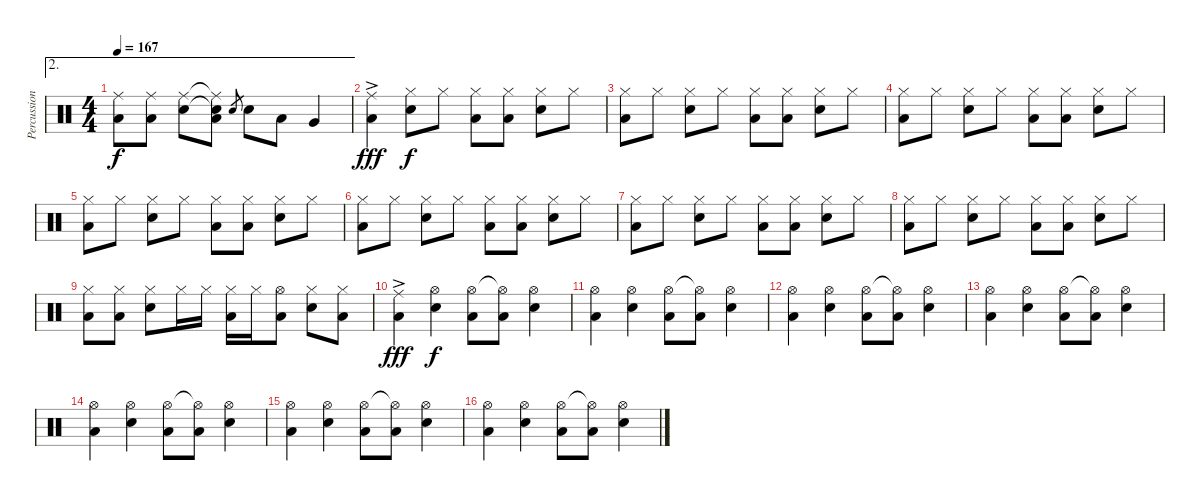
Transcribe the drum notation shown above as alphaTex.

\track ("Percussion" "Percussion") {instrument percussion}
\staff {score}
\articulation defaults
\ae 2
\ts (4 4)
\tempo 167
\clef neutral
\ks c
("Ride (middle)" "Low Floor Tom (hit)").8{dy f} ("Ride (middle)" "Low Floor Tom (hit)").8 ("Ride (middle)" "Snare (hit) 2").8 ("Ride (middle)"{t} "Snare (hit) 2"{t} "Low Floor Tom (hit)").8 "Snare (hit) 2".8{gr} "Snare (hit) 2".8 "Low Tom (hit)".8 "Very Low Tom (hit)".4 |
("Ride (middle)"{ac} "Low Floor Tom (hit)").4{dy fff} ("Hi-Hat (closed)" "Snare (hit) 2").8{dy f} "Hi-Hat (closed)".8 ("Hi-Hat (closed)" "Low Floor Tom (hit)").8 ("Hi-Hat (closed)" "Low Floor Tom (hit)").8 ("Hi-Hat (closed)" "Snare (hit) 2").8 "Hi-Hat (closed)".8 |
("Hi-Hat (closed)" "Low Floor Tom (hit)").8 "Hi-Hat (closed)".8 ("Hi-Hat (closed)" "Snare (hit) 2").8 "Hi-Hat (closed)".8 ("Hi-Hat (closed)" "Low Floor Tom (hit)").8 ("Hi-Hat (closed)" "Low Floor Tom (hit)").8 ("Hi-Hat (closed)" "Snare (hit) 2").8 "Hi-Hat (closed)".8 |
("Hi-Hat (closed)" "Low Floor Tom (hit)").8 "Hi-Hat (closed)".8 ("Hi-Hat (closed)" "Snare (hit) 2").8 "Hi-Hat (closed)".8 ("Hi-Hat (closed)" "Low Floor Tom (hit)").8 ("Hi-Hat (closed)" "Low Floor Tom (hit)").8 ("Hi-Hat (closed)" "Snare (hit) 2").8 "Hi-Hat (closed)".8 |
("Hi-Hat (closed)" "Low Floor Tom (hit)").8 "Hi-Hat (closed)".8 ("Hi-Hat (closed)" "Snare (hit) 2").8 "Hi-Hat (closed)".8 ("Hi-Hat (closed)" "Low Floor Tom (hit)").8 ("Hi-Hat (closed)" "Low Floor Tom (hit)").8 ("Hi-Hat (closed)" "Snare (hit) 2").8 "Hi-Hat (closed)".8 |
("Hi-Hat (closed)" "Low Floor Tom (hit)").8 "Hi-Hat (closed)".8 ("Hi-Hat (closed)" "Snare (hit) 2").8 "Hi-Hat (closed)".8 ("Hi-Hat (closed)" "Low Floor Tom (hit)").8 ("Hi-Hat (closed)" "Low Floor Tom (hit)").8 ("Hi-Hat (closed)" "Snare (hit) 2").8 "Hi-Hat (closed)".8 |
("Hi-Hat (closed)" "Low Floor Tom (hit)").8 "Hi-Hat (closed)".8 ("Hi-Hat (closed)" "Snare (hit) 2").8 "Hi-Hat (closed)".8 ("Hi-Hat (closed)" "Low Floor Tom (hit)").8 ("Hi-Hat (closed)" "Low Floor Tom (hit)").8 ("Hi-Hat (closed)" "Snare (hit) 2").8 "Hi-Hat (closed)".8 |
("Hi-Hat (closed)" "Low Floor Tom (hit)").8 "Hi-Hat (closed)".8 ("Hi-Hat (closed)" "Snare (hit) 2").8 "Hi-Hat (closed)".8 ("Hi-Hat (closed)" "Low Floor Tom (hit)").8 ("Hi-Hat (closed)" "Low Floor Tom (hit)").8 ("Hi-Hat (closed)" "Snare (hit) 2").8 "Hi-Hat (closed)".8 |
("Hi-Hat (closed)" "Low Floor Tom (hit)").8 ("Hi-Hat (closed)" "Low Floor Tom (hit)").8 ("Hi-Hat (closed)" "Snare (hit) 2").8 "Hi-Hat (closed)".16 "Hi-Hat (closed)".16 ("Hi-Hat (closed)" "Low Floor Tom (hit)").16 "Hi-Hat (closed)".16 ("Hi-Hat (open)" "Low Floor Tom (hit)").8 ("Hi-Hat (closed)" "Snare (hit) 2").8 ("Hi-Hat (closed)" "Low Floor Tom (hit)").8 |
("Ride (middle)"{ac} "Low Floor Tom (hit)").4{dy fff} ("Hi-Hat (open)" "Snare (hit) 2").4{dy f} ("Hi-Hat (open)" "Low Floor Tom (hit)").8 ("Hi-Hat (open)"{t} "Low Floor Tom (hit)").8 ("Hi-Hat (open)" "Snare (hit) 2").4 |
("Hi-Hat (open)" "Low Floor Tom (hit)").4 ("Hi-Hat (open)" "Snare (hit) 2").4 ("Hi-Hat (open)" "Low Floor Tom (hit)").8 ("Hi-Hat (open)"{t} "Low Floor Tom (hit)").8 ("Hi-Hat (open)" "Snare (hit) 2").4 |
("Hi-Hat (open)" "Low Floor Tom (hit)").4 ("Hi-Hat (open)" "Snare (hit) 2").4 ("Hi-Hat (open)" "Low Floor Tom (hit)").8 ("Hi-Hat (open)"{t} "Low Floor Tom (hit)").8 ("Hi-Hat (open)" "Snare (hit) 2").4 |
("Hi-Hat (open)" "Low Floor Tom (hit)").4 ("Hi-Hat (open)" "Snare (hit) 2").4 ("Hi-Hat (open)" "Low Floor Tom (hit)").8 ("Hi-Hat (open)"{t} "Low Floor Tom (hit)").8 ("Hi-Hat (open)" "Snare (hit) 2").4 |
("Hi-Hat (open)" "Low Floor Tom (hit)").4 ("Hi-Hat (open)" "Snare (hit) 2").4 ("Hi-Hat (open)" "Low Floor Tom (hit)").8 ("Hi-Hat (open)"{t} "Low Floor Tom (hit)").8 ("Hi-Hat (open)" "Snare (hit) 2").4 |
("Hi-Hat (open)" "Low Floor Tom (hit)").4 ("Hi-Hat (open)" "Snare (hit) 2").4 ("Hi-Hat (open)" "Low Floor Tom (hit)").8 ("Hi-Hat (open)"{t} "Low Floor Tom (hit)").8 ("Hi-Hat (open)" "Snare (hit) 2").4 |
("Hi-Hat (open)" "Low Floor Tom (hit)").4 ("Hi-Hat (open)" "Snare (hit) 2").4 ("Hi-Hat (open)" "Low Floor Tom (hit)").8 ("Hi-Hat (open)"{t} "Low Floor Tom (hit)").8 ("Hi-Hat (open)" "Snare (hit) 2").4
